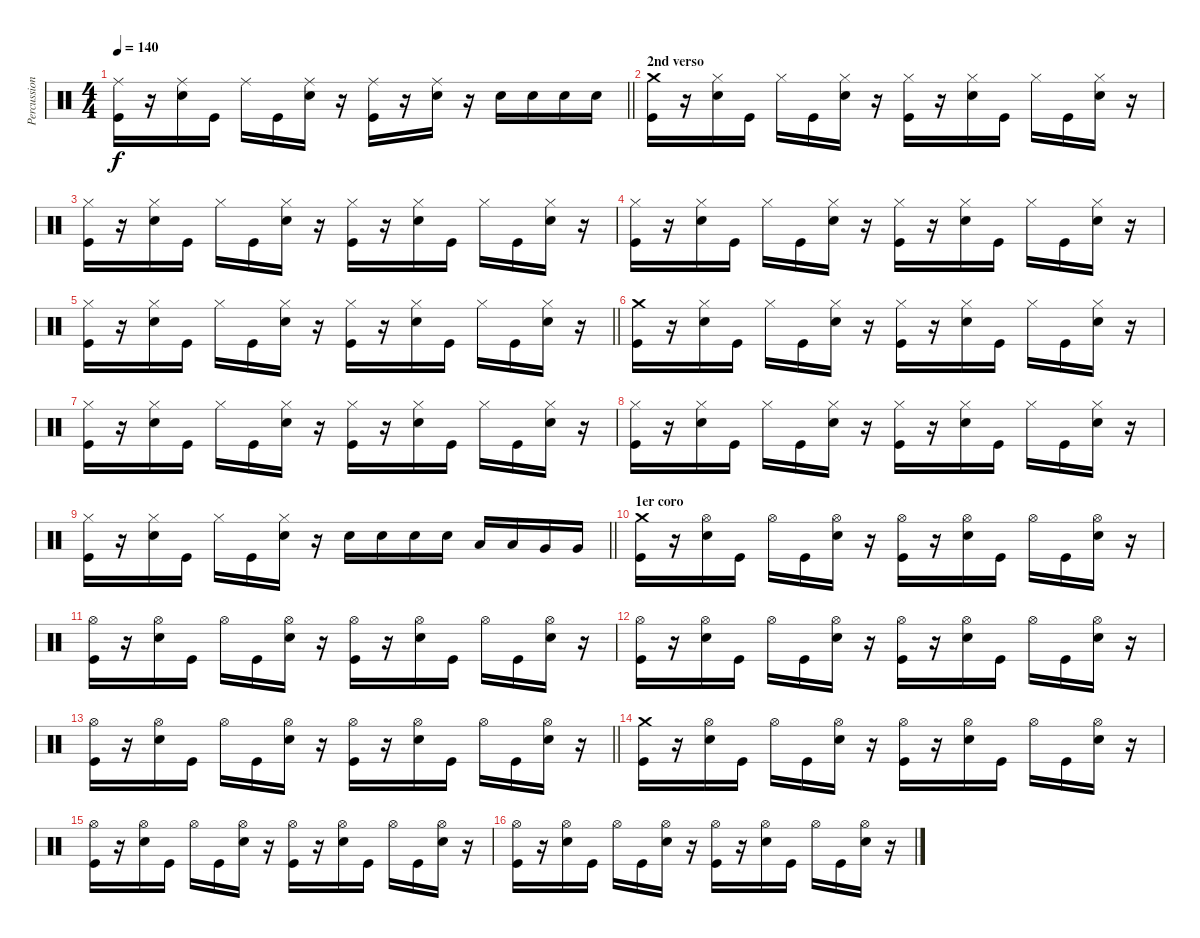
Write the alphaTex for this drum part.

\track ("Percussion" "Percussion") {instrument percussion}
\staff {score}
\articulation defaults
\ts (4 4)
\tempo 140
\clef neutral
\barLineRight lightlight
\ks c
("Ride (middle)" "Kick (hit)").16{dy f} r.16 ("Ride (middle)" "Snare (hit) 2").16 "Kick (hit)".16 "Ride (middle)".16 "Kick (hit)".16 ("Ride (middle)" "Snare (hit) 2").16 r.16 ("Ride (middle)" "Kick (hit)").16 r.16 ("Ride (middle)" "Snare (hit) 2").16 r.16 "Snare (hit) 2".16 "Snare (hit) 2".16 "Snare (hit) 2".16 "Snare (hit) 2".16 |
\section ("" "2nd verso")
("Crash medium (hit)" "Kick (hit)").16 r.16 ("Hi-Hat (closed)" "Snare (hit) 2").16 "Kick (hit)".16 "Hi-Hat (closed)".16 "Kick (hit)".16 ("Hi-Hat (closed)" "Snare (hit) 2").16 r.16 ("Hi-Hat (closed)" "Kick (hit)").16 r.16 ("Hi-Hat (closed)" "Snare (hit) 2").16 "Kick (hit)".16 "Hi-Hat (closed)".16 "Kick (hit)".16 ("Hi-Hat (closed)" "Snare (hit) 2").16 r.16 |
("Hi-Hat (closed)" "Kick (hit)").16 r.16 ("Hi-Hat (closed)" "Snare (hit) 2").16 "Kick (hit)".16 "Hi-Hat (closed)".16 "Kick (hit)".16 ("Hi-Hat (closed)" "Snare (hit) 2").16 r.16 ("Hi-Hat (closed)" "Kick (hit)").16 r.16 ("Hi-Hat (closed)" "Snare (hit) 2").16 "Kick (hit)".16 "Hi-Hat (closed)".16 "Kick (hit)".16 ("Hi-Hat (closed)" "Snare (hit) 2").16 r.16 |
("Hi-Hat (closed)" "Kick (hit)").16 r.16 ("Hi-Hat (closed)" "Snare (hit) 2").16 "Kick (hit)".16 "Hi-Hat (closed)".16 "Kick (hit)".16 ("Hi-Hat (closed)" "Snare (hit) 2").16 r.16 ("Hi-Hat (closed)" "Kick (hit)").16 r.16 ("Hi-Hat (closed)" "Snare (hit) 2").16 "Kick (hit)".16 "Hi-Hat (closed)".16 "Kick (hit)".16 ("Hi-Hat (closed)" "Snare (hit) 2").16 r.16 |
\barLineRight lightlight
("Hi-Hat (closed)" "Kick (hit)").16 r.16 ("Hi-Hat (closed)" "Snare (hit) 2").16 "Kick (hit)".16 "Hi-Hat (closed)".16 "Kick (hit)".16 ("Hi-Hat (closed)" "Snare (hit) 2").16 r.16 ("Hi-Hat (closed)" "Kick (hit)").16 r.16 ("Hi-Hat (closed)" "Snare (hit) 2").16 "Kick (hit)".16 "Hi-Hat (closed)".16 "Kick (hit)".16 ("Hi-Hat (closed)" "Snare (hit) 2").16 r.16 |
("Crash medium (hit)" "Kick (hit)").16 r.16 ("Hi-Hat (closed)" "Snare (hit) 2").16 "Kick (hit)".16 "Hi-Hat (closed)".16 "Kick (hit)".16 ("Hi-Hat (closed)" "Snare (hit) 2").16 r.16 ("Hi-Hat (closed)" "Kick (hit)").16 r.16 ("Hi-Hat (closed)" "Snare (hit) 2").16 "Kick (hit)".16 "Hi-Hat (closed)".16 "Kick (hit)".16 ("Hi-Hat (closed)" "Snare (hit) 2").16 r.16 |
("Hi-Hat (closed)" "Kick (hit)").16 r.16 ("Hi-Hat (closed)" "Snare (hit) 2").16 "Kick (hit)".16 "Hi-Hat (closed)".16 "Kick (hit)".16 ("Hi-Hat (closed)" "Snare (hit) 2").16 r.16 ("Hi-Hat (closed)" "Kick (hit)").16 r.16 ("Hi-Hat (closed)" "Snare (hit) 2").16 "Kick (hit)".16 "Hi-Hat (closed)".16 "Kick (hit)".16 ("Hi-Hat (closed)" "Snare (hit) 2").16 r.16 |
("Hi-Hat (closed)" "Kick (hit)").16 r.16 ("Hi-Hat (closed)" "Snare (hit) 2").16 "Kick (hit)".16 "Hi-Hat (closed)".16 "Kick (hit)".16 ("Hi-Hat (closed)" "Snare (hit) 2").16 r.16 ("Hi-Hat (closed)" "Kick (hit)").16 r.16 ("Hi-Hat (closed)" "Snare (hit) 2").16 "Kick (hit)".16 "Hi-Hat (closed)".16 "Kick (hit)".16 ("Hi-Hat (closed)" "Snare (hit) 2").16 r.16 |
\barLineRight lightlight
("Hi-Hat (closed)" "Kick (hit)").16 r.16 ("Hi-Hat (closed)" "Snare (hit) 2").16 "Kick (hit)".16 "Hi-Hat (closed)".16 "Kick (hit)".16 ("Hi-Hat (closed)" "Snare (hit) 2").16 r.16 "Snare (hit) 2".16 "Snare (hit) 2".16 "Snare (hit) 2".16 "Snare (hit) 2".16 "Low Tom (hit)".16 "Low Tom (hit)".16 "Very Low Tom (hit)".16 "Very Low Tom (hit)".16 |
\section ("" "1er coro")
("Crash medium (hit)" "Kick (hit)").16 r.16 ("Hi-Hat (open)" "Snare (hit) 2").16 "Kick (hit)".16 "Hi-Hat (open)".16 "Kick (hit)".16 ("Hi-Hat (open)" "Snare (hit) 2").16 r.16 ("Hi-Hat (open)" "Kick (hit)").16 r.16 ("Hi-Hat (open)" "Snare (hit) 2").16 "Kick (hit)".16 "Hi-Hat (open)".16 "Kick (hit)".16 ("Hi-Hat (open)" "Snare (hit) 2").16 r.16 |
("Hi-Hat (open)" "Kick (hit)").16 r.16 ("Hi-Hat (open)" "Snare (hit) 2").16 "Kick (hit)".16 "Hi-Hat (open)".16 "Kick (hit)".16 ("Hi-Hat (open)" "Snare (hit) 2").16 r.16 ("Hi-Hat (open)" "Kick (hit)").16 r.16 ("Hi-Hat (open)" "Snare (hit) 2").16 "Kick (hit)".16 "Hi-Hat (open)".16 "Kick (hit)".16 ("Hi-Hat (open)" "Snare (hit) 2").16 r.16 |
("Hi-Hat (open)" "Kick (hit)").16 r.16 ("Hi-Hat (open)" "Snare (hit) 2").16 "Kick (hit)".16 "Hi-Hat (open)".16 "Kick (hit)".16 ("Hi-Hat (open)" "Snare (hit) 2").16 r.16 ("Hi-Hat (open)" "Kick (hit)").16 r.16 ("Hi-Hat (open)" "Snare (hit) 2").16 "Kick (hit)".16 "Hi-Hat (open)".16 "Kick (hit)".16 ("Hi-Hat (open)" "Snare (hit) 2").16 r.16 |
\barLineRight lightlight
("Hi-Hat (open)" "Kick (hit)").16 r.16 ("Hi-Hat (open)" "Snare (hit) 2").16 "Kick (hit)".16 "Hi-Hat (open)".16 "Kick (hit)".16 ("Hi-Hat (open)" "Snare (hit) 2").16 r.16 ("Hi-Hat (open)" "Kick (hit)").16 r.16 ("Hi-Hat (open)" "Snare (hit) 2").16 "Kick (hit)".16 "Hi-Hat (open)".16 "Kick (hit)".16 ("Hi-Hat (open)" "Snare (hit) 2").16 r.16 |
("Crash medium (hit)" "Kick (hit)").16 r.16 ("Hi-Hat (open)" "Snare (hit) 2").16 "Kick (hit)".16 "Hi-Hat (open)".16 "Kick (hit)".16 ("Hi-Hat (open)" "Snare (hit) 2").16 r.16 ("Hi-Hat (open)" "Kick (hit)").16 r.16 ("Hi-Hat (open)" "Snare (hit) 2").16 "Kick (hit)".16 "Hi-Hat (open)".16 "Kick (hit)".16 ("Hi-Hat (open)" "Snare (hit) 2").16 r.16 |
("Hi-Hat (open)" "Kick (hit)").16 r.16 ("Hi-Hat (open)" "Snare (hit) 2").16 "Kick (hit)".16 "Hi-Hat (open)".16 "Kick (hit)".16 ("Hi-Hat (open)" "Snare (hit) 2").16 r.16 ("Hi-Hat (open)" "Kick (hit)").16 r.16 ("Hi-Hat (open)" "Snare (hit) 2").16 "Kick (hit)".16 "Hi-Hat (open)".16 "Kick (hit)".16 ("Hi-Hat (open)" "Snare (hit) 2").16 r.16 |
("Hi-Hat (open)" "Kick (hit)").16 r.16 ("Hi-Hat (open)" "Snare (hit) 2").16 "Kick (hit)".16 "Hi-Hat (open)".16 "Kick (hit)".16 ("Hi-Hat (open)" "Snare (hit) 2").16 r.16 ("Hi-Hat (open)" "Kick (hit)").16 r.16 ("Hi-Hat (open)" "Snare (hit) 2").16 "Kick (hit)".16 "Hi-Hat (open)".16 "Kick (hit)".16 ("Hi-Hat (open)" "Snare (hit) 2").16 r.16
